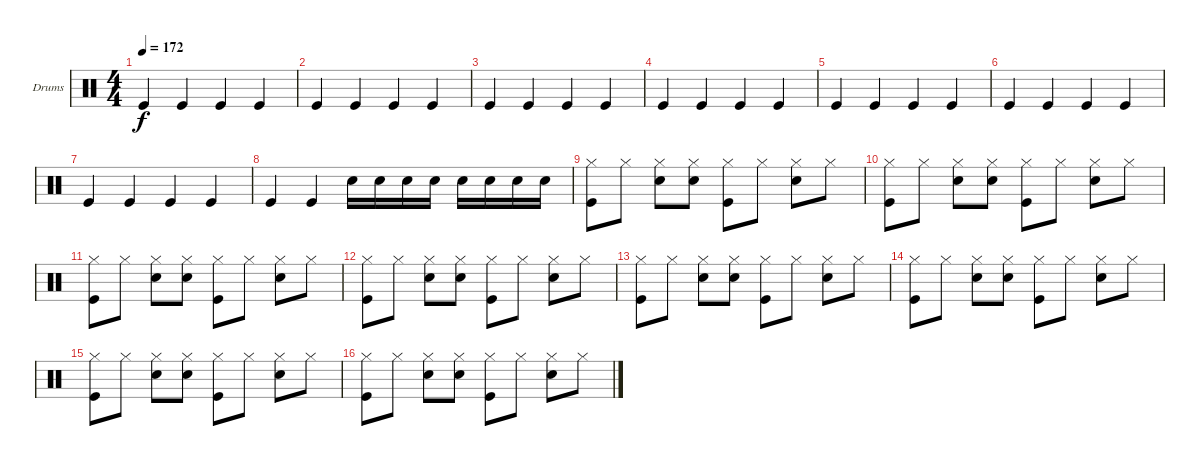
\bracketExtendMode groupsimilarinstruments
\firstSystemTrackNameOrientation horizontal
\otherSystemsTrackNameOrientation horizontal
\track ("Drumkit" "Drums") {instrument percussion}
\staff {score}
\articulation defaults
\ts (4 4)
\tempo 172
\clef neutral
\ks c "Kick (hit)".4{dy f} "Kick (hit)".4 "Kick (hit)".4 "Kick (hit)".4
|
"Kick (hit)".4 "Kick (hit)".4 "Kick (hit)".4 "Kick (hit)".4 |
"Kick (hit)".4 "Kick (hit)".4 "Kick (hit)".4 "Kick (hit)".4 |
"Kick (hit)".4 "Kick (hit)".4 "Kick (hit)".4 "Kick (hit)".4 |
"Kick (hit)".4 "Kick (hit)".4 "Kick (hit)".4 "Kick (hit)".4 |
"Kick (hit)".4 "Kick (hit)".4 "Kick (hit)".4 "Kick (hit)".4 |
"Kick (hit)".4 "Kick (hit)".4 "Kick (hit)".4 "Kick (hit)".4 |
"Kick (hit)".4 "Kick (hit)".4 "Snare (hit) 2".16 "Snare (hit) 2".16 "Snare (hit) 2".16 "Snare (hit) 2".16 "Snare (hit) 2".16 "Snare (hit) 2".16 "Snare (hit) 2".16 "Snare (hit) 2".16 |
("Hi-Hat (closed)" "Kick (hit)").8 "Hi-Hat (closed)".8 ("Snare (hit) 2" "Hi-Hat (closed)").8 ("Snare (hit) 2" "Hi-Hat (closed)").8 ("Hi-Hat (closed)" "Kick (hit)").8 "Hi-Hat (closed)".8 ("Snare (hit) 2" "Hi-Hat (closed)").8 "Hi-Hat (closed)".8 |
("Hi-Hat (closed)" "Kick (hit)").8 "Hi-Hat (closed)".8 ("Snare (hit) 2" "Hi-Hat (closed)").8 ("Snare (hit) 2" "Hi-Hat (closed)").8 ("Hi-Hat (closed)" "Kick (hit)").8 "Hi-Hat (closed)".8 ("Snare (hit) 2" "Hi-Hat (closed)").8 "Hi-Hat (closed)".8 |
("Hi-Hat (closed)" "Kick (hit)").8 "Hi-Hat (closed)".8 ("Snare (hit) 2" "Hi-Hat (closed)").8 ("Snare (hit) 2" "Hi-Hat (closed)").8 ("Hi-Hat (closed)" "Kick (hit)").8 "Hi-Hat (closed)".8 ("Snare (hit) 2" "Hi-Hat (closed)").8 "Hi-Hat (closed)".8 |
("Hi-Hat (closed)" "Kick (hit)").8 "Hi-Hat (closed)".8 ("Snare (hit) 2" "Hi-Hat (closed)").8 ("Snare (hit) 2" "Hi-Hat (closed)").8 ("Hi-Hat (closed)" "Kick (hit)").8 "Hi-Hat (closed)".8 ("Snare (hit) 2" "Hi-Hat (closed)").8 "Hi-Hat (closed)".8 |
("Hi-Hat (closed)" "Kick (hit)").8 "Hi-Hat (closed)".8 ("Snare (hit) 2" "Hi-Hat (closed)").8 ("Snare (hit) 2" "Hi-Hat (closed)").8 ("Hi-Hat (closed)" "Kick (hit)").8 "Hi-Hat (closed)".8 ("Snare (hit) 2" "Hi-Hat (closed)").8 "Hi-Hat (closed)".8 |
("Hi-Hat (closed)" "Kick (hit)").8 "Hi-Hat (closed)".8 ("Snare (hit) 2" "Hi-Hat (closed)").8 ("Snare (hit) 2" "Hi-Hat (closed)").8 ("Hi-Hat (closed)" "Kick (hit)").8 "Hi-Hat (closed)".8 ("Snare (hit) 2" "Hi-Hat (closed)").8 "Hi-Hat (closed)".8 |
("Hi-Hat (closed)" "Kick (hit)").8 "Hi-Hat (closed)".8 ("Snare (hit) 2" "Hi-Hat (closed)").8 ("Snare (hit) 2" "Hi-Hat (closed)").8 ("Hi-Hat (closed)" "Kick (hit)").8 "Hi-Hat (closed)".8 ("Snare (hit) 2" "Hi-Hat (closed)").8 "Hi-Hat (closed)".8 |
("Hi-Hat (closed)" "Kick (hit)").8 "Hi-Hat (closed)".8 ("Snare (hit) 2" "Hi-Hat (closed)").8 ("Snare (hit) 2" "Hi-Hat (closed)").8 ("Hi-Hat (closed)" "Kick (hit)").8 "Hi-Hat (closed)".8 ("Snare (hit) 2" "Hi-Hat (closed)").8 "Hi-Hat (closed)".8
